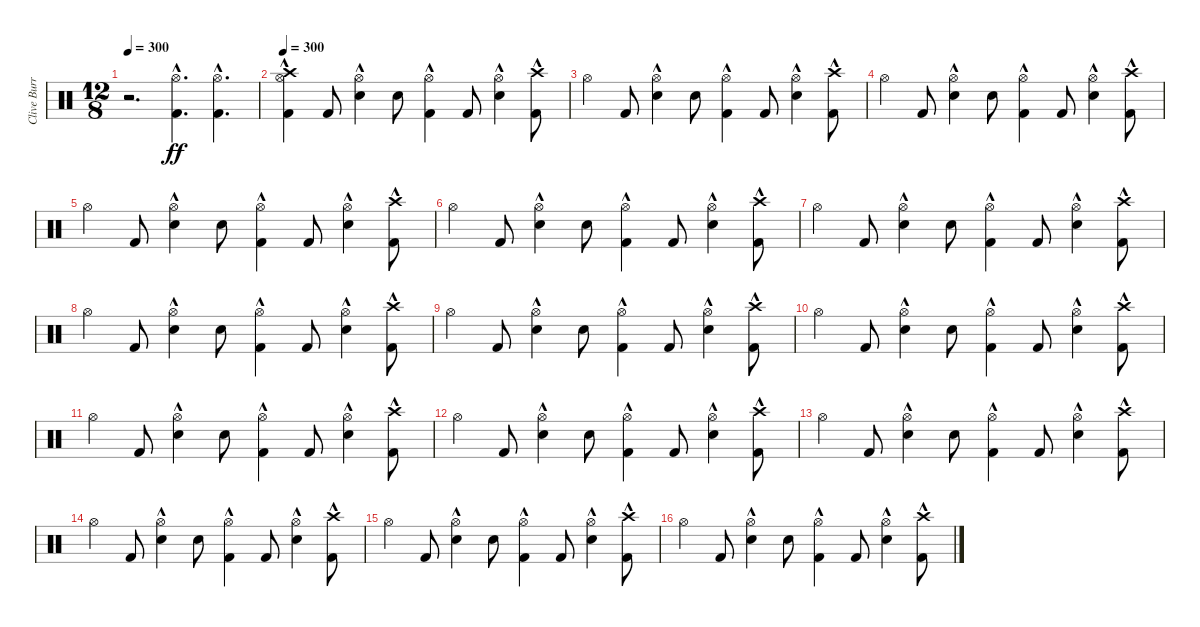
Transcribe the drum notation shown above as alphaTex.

\track ("Clive Burr" "Clive Burr") {instrument percussion}
\staff {score}
\articulation defaults
\ts (12 8)
\tempo 300
\clef neutral
\ks c
r.2{d dy ff} ("Kick (hit) 2"{hac} "Hi-Hat (open)"{hac}).4{d} ("Kick (hit) 2"{hac} "Hi-Hat (open)"{hac}).4{d} |
\tempo 300
("Kick (hit) 2"{hac} "Hi-Hat (open)" "Crash high (hit)").4 "Kick (hit) 2".8 ("Snare (hit) 2"{hac} "Hi-Hat (open)").4 "Snare (hit) 2".8 ("Kick (hit) 2"{hac} "Hi-Hat (open)").4 "Kick (hit) 2".8 ("Snare (hit) 2"{hac} "Hi-Hat (open)").4 ("Kick (hit) 2" "Crash high (hit)"{hac}).8 |
"Hi-Hat (open)".4 "Kick (hit) 2".8 ("Snare (hit) 2"{hac} "Hi-Hat (open)").4 "Snare (hit) 2".8 ("Kick (hit) 2"{hac} "Hi-Hat (open)").4 "Kick (hit) 2".8 ("Snare (hit) 2"{hac} "Hi-Hat (open)").4 ("Kick (hit) 2" "Crash high (hit)"{hac}).8 |
"Hi-Hat (open)".4 "Kick (hit) 2".8 ("Snare (hit) 2"{hac} "Hi-Hat (open)").4 "Snare (hit) 2".8 ("Kick (hit) 2"{hac} "Hi-Hat (open)").4 "Kick (hit) 2".8 ("Snare (hit) 2"{hac} "Hi-Hat (open)").4 ("Kick (hit) 2" "Crash high (hit)"{hac}).8 |
"Hi-Hat (open)".4 "Kick (hit) 2".8 ("Snare (hit) 2"{hac} "Hi-Hat (open)").4 "Snare (hit) 2".8 ("Kick (hit) 2"{hac} "Hi-Hat (open)").4 "Kick (hit) 2".8 ("Snare (hit) 2"{hac} "Hi-Hat (open)").4 ("Kick (hit) 2" "Crash high (hit)"{hac}).8 |
"Hi-Hat (open)".4 "Kick (hit) 2".8 ("Snare (hit) 2"{hac} "Hi-Hat (open)").4 "Snare (hit) 2".8 ("Kick (hit) 2"{hac} "Hi-Hat (open)").4 "Kick (hit) 2".8 ("Snare (hit) 2"{hac} "Hi-Hat (open)").4 ("Kick (hit) 2" "Crash high (hit)"{hac}).8 |
"Hi-Hat (open)".4 "Kick (hit) 2".8 ("Snare (hit) 2"{hac} "Hi-Hat (open)").4 "Snare (hit) 2".8 ("Kick (hit) 2"{hac} "Hi-Hat (open)").4 "Kick (hit) 2".8 ("Snare (hit) 2"{hac} "Hi-Hat (open)").4 ("Kick (hit) 2" "Crash high (hit)"{hac}).8 |
"Hi-Hat (open)".4 "Kick (hit) 2".8 ("Snare (hit) 2"{hac} "Hi-Hat (open)").4 "Snare (hit) 2".8 ("Kick (hit) 2"{hac} "Hi-Hat (open)").4 "Kick (hit) 2".8 ("Snare (hit) 2"{hac} "Hi-Hat (open)").4 ("Kick (hit) 2" "Crash high (hit)"{hac}).8 |
"Hi-Hat (open)".4 "Kick (hit) 2".8 ("Snare (hit) 2"{hac} "Hi-Hat (open)").4 "Snare (hit) 2".8 ("Kick (hit) 2"{hac} "Hi-Hat (open)").4 "Kick (hit) 2".8 ("Snare (hit) 2"{hac} "Hi-Hat (open)").4 ("Kick (hit) 2" "Crash high (hit)"{hac}).8 |
"Hi-Hat (open)".4 "Kick (hit) 2".8 ("Snare (hit) 2"{hac} "Hi-Hat (open)").4 "Snare (hit) 2".8 ("Kick (hit) 2"{hac} "Hi-Hat (open)").4 "Kick (hit) 2".8 ("Snare (hit) 2"{hac} "Hi-Hat (open)").4 ("Kick (hit) 2" "Crash high (hit)"{hac}).8 |
"Hi-Hat (open)".4 "Kick (hit) 2".8 ("Snare (hit) 2"{hac} "Hi-Hat (open)").4 "Snare (hit) 2".8 ("Kick (hit) 2"{hac} "Hi-Hat (open)").4 "Kick (hit) 2".8 ("Snare (hit) 2"{hac} "Hi-Hat (open)").4 ("Kick (hit) 2" "Crash high (hit)"{hac}).8 |
"Hi-Hat (open)".4 "Kick (hit) 2".8 ("Snare (hit) 2"{hac} "Hi-Hat (open)").4 "Snare (hit) 2".8 ("Kick (hit) 2"{hac} "Hi-Hat (open)").4 "Kick (hit) 2".8 ("Snare (hit) 2"{hac} "Hi-Hat (open)").4 ("Kick (hit) 2" "Crash high (hit)"{hac}).8 |
"Hi-Hat (open)".4 "Kick (hit) 2".8 ("Snare (hit) 2"{hac} "Hi-Hat (open)").4 "Snare (hit) 2".8 ("Kick (hit) 2"{hac} "Hi-Hat (open)").4 "Kick (hit) 2".8 ("Snare (hit) 2"{hac} "Hi-Hat (open)").4 ("Kick (hit) 2" "Crash high (hit)"{hac}).8 |
"Hi-Hat (open)".4 "Kick (hit) 2".8 ("Snare (hit) 2"{hac} "Hi-Hat (open)").4 "Snare (hit) 2".8 ("Kick (hit) 2"{hac} "Hi-Hat (open)").4 "Kick (hit) 2".8 ("Snare (hit) 2"{hac} "Hi-Hat (open)").4 ("Kick (hit) 2" "Crash high (hit)"{hac}).8 |
"Hi-Hat (open)".4 "Kick (hit) 2".8 ("Snare (hit) 2"{hac} "Hi-Hat (open)").4 "Snare (hit) 2".8 ("Kick (hit) 2"{hac} "Hi-Hat (open)").4 "Kick (hit) 2".8 ("Snare (hit) 2"{hac} "Hi-Hat (open)").4 ("Kick (hit) 2" "Crash high (hit)"{hac}).8 |
"Hi-Hat (open)".4 "Kick (hit) 2".8 ("Snare (hit) 2"{hac} "Hi-Hat (open)").4 "Snare (hit) 2".8 ("Kick (hit) 2"{hac} "Hi-Hat (open)").4 "Kick (hit) 2".8 ("Snare (hit) 2"{hac} "Hi-Hat (open)").4 ("Kick (hit) 2" "Crash high (hit)"{hac}).8
